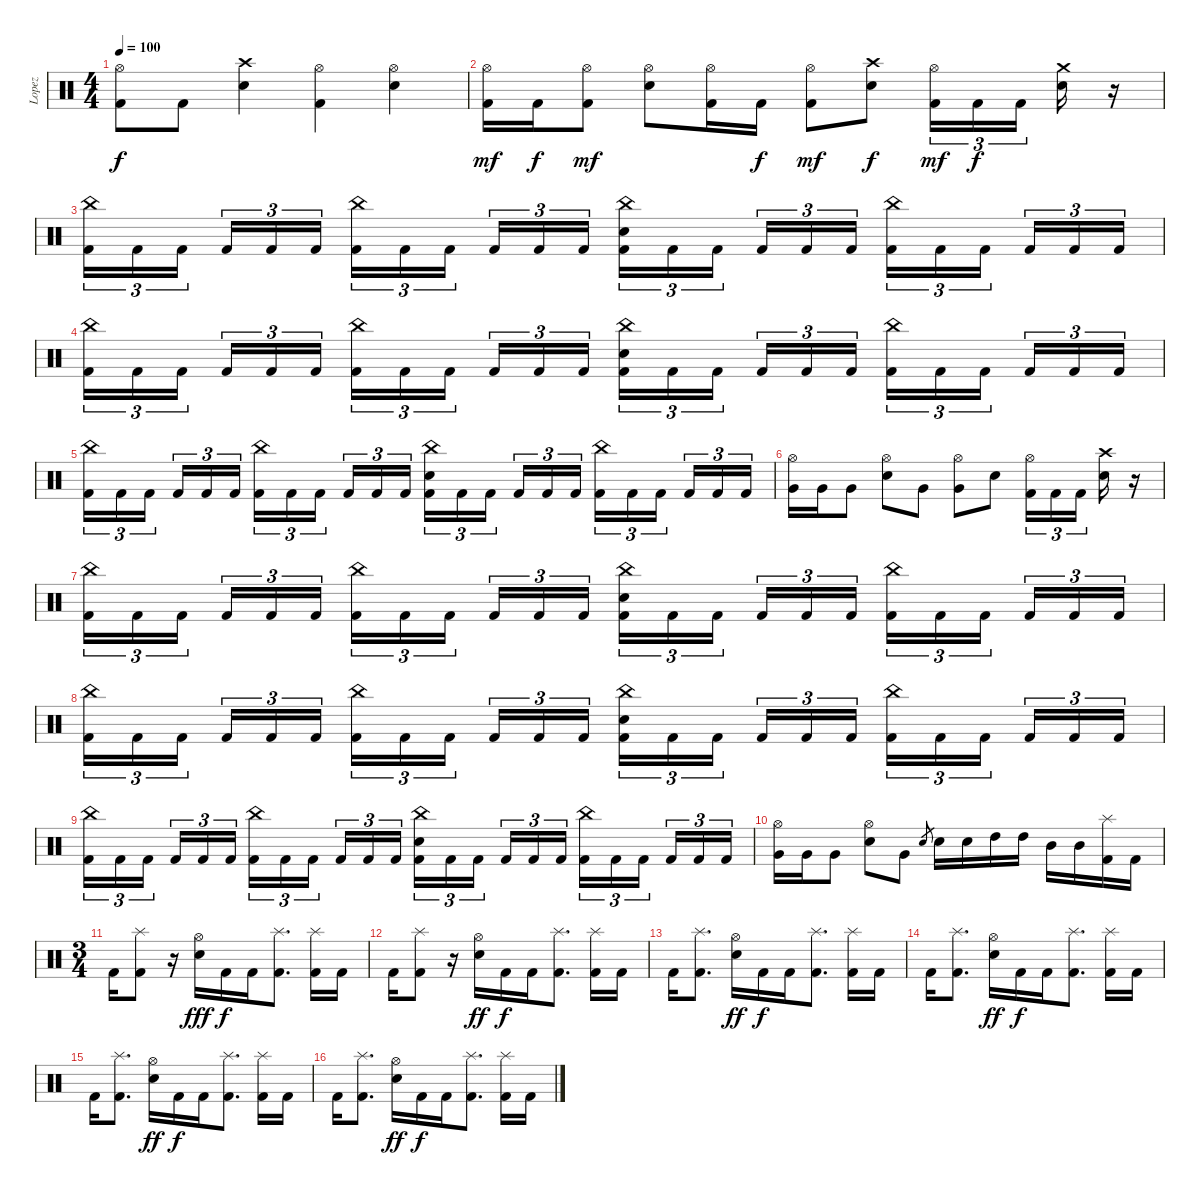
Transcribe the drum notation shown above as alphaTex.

\track ("Lopez" "Lopez") {instrument percussion}
\staff {score}
\articulation defaults
\ts (4 4)
\tempo 100
\clef neutral
\ks c
("Hi-Hat (open)" "Kick (hit) 2").8{dy f} "Kick (hit) 2".8 ("Crash high (hit)" "Snare (hit) 2").4 ("Hi-Hat (open)" "Kick (hit) 2").4 ("Hi-Hat (open)" "Snare (hit) 2").4 |
("Hi-Hat (open)" "Kick (hit) 2").16{dy mf} "Kick (hit) 2".16{dy f} ("Hi-Hat (open)" "Kick (hit) 2").8{dy mf} ("Hi-Hat (open)" "Snare (hit) 2").8 ("Hi-Hat (open)" "Kick (hit) 2").16 "Kick (hit) 2".16{dy f} ("Hi-Hat (open)" "Kick (hit) 2").8{dy mf} ("Crash high (hit)" "Snare (hit) 2").8{dy f} ("Hi-Hat (open)" "Kick (hit) 2").16{tu (3 2) dy mf} "Kick (hit) 2".16{tu (3 2) dy f} "Kick (hit) 2".16{tu (3 2) beam splitsecondary} ("Crash medium (hit)" "Snare (hit) 2").16 r.16 |
("China (hit)" "Kick (hit) 2").16{tu (3 2)} "Kick (hit) 2".16{tu (3 2)} "Kick (hit) 2".16{tu (3 2) beam splitsecondary} "Kick (hit) 2".16{tu (3 2)} "Kick (hit) 2".16{tu (3 2)} "Kick (hit) 2".16{tu (3 2)} ("China (hit)" "Kick (hit) 2").16{tu (3 2)} "Kick (hit) 2".16{tu (3 2)} "Kick (hit) 2".16{tu (3 2) beam splitsecondary} "Kick (hit) 2".16{tu (3 2)} "Kick (hit) 2".16{tu (3 2)} "Kick (hit) 2".16{tu (3 2)} ("China (hit)" "Snare (hit) 2" "Kick (hit) 2").16{tu (3 2)} "Kick (hit) 2".16{tu (3 2)} "Kick (hit) 2".16{tu (3 2) beam splitsecondary} "Kick (hit) 2".16{tu (3 2)} "Kick (hit) 2".16{tu (3 2)} "Kick (hit) 2".16{tu (3 2)} ("China (hit)" "Kick (hit) 2").16{tu (3 2)} "Kick (hit) 2".16{tu (3 2)} "Kick (hit) 2".16{tu (3 2) beam splitsecondary} "Kick (hit) 2".16{tu (3 2)} "Kick (hit) 2".16{tu (3 2)} "Kick (hit) 2".16{tu (3 2)} |
("China (hit)" "Kick (hit) 2").16{tu (3 2)} "Kick (hit) 2".16{tu (3 2)} "Kick (hit) 2".16{tu (3 2) beam splitsecondary} "Kick (hit) 2".16{tu (3 2)} "Kick (hit) 2".16{tu (3 2)} "Kick (hit) 2".16{tu (3 2)} ("China (hit)" "Kick (hit) 2").16{tu (3 2)} "Kick (hit) 2".16{tu (3 2)} "Kick (hit) 2".16{tu (3 2) beam splitsecondary} "Kick (hit) 2".16{tu (3 2)} "Kick (hit) 2".16{tu (3 2)} "Kick (hit) 2".16{tu (3 2)} ("China (hit)" "Snare (hit) 2" "Kick (hit) 2").16{tu (3 2)} "Kick (hit) 2".16{tu (3 2)} "Kick (hit) 2".16{tu (3 2) beam splitsecondary} "Kick (hit) 2".16{tu (3 2)} "Kick (hit) 2".16{tu (3 2)} "Kick (hit) 2".16{tu (3 2)} ("China (hit)" "Kick (hit) 2").16{tu (3 2)} "Kick (hit) 2".16{tu (3 2)} "Kick (hit) 2".16{tu (3 2) beam splitsecondary} "Kick (hit) 2".16{tu (3 2)} "Kick (hit) 2".16{tu (3 2)} "Kick (hit) 2".16{tu (3 2)} |
("China (hit)" "Kick (hit) 2").16{tu (3 2)} "Kick (hit) 2".16{tu (3 2)} "Kick (hit) 2".16{tu (3 2) beam splitsecondary} "Kick (hit) 2".16{tu (3 2)} "Kick (hit) 2".16{tu (3 2)} "Kick (hit) 2".16{tu (3 2)} ("China (hit)" "Kick (hit) 2").16{tu (3 2)} "Kick (hit) 2".16{tu (3 2)} "Kick (hit) 2".16{tu (3 2) beam splitsecondary} "Kick (hit) 2".16{tu (3 2)} "Kick (hit) 2".16{tu (3 2)} "Kick (hit) 2".16{tu (3 2)} ("China (hit)" "Snare (hit) 2" "Kick (hit) 2").16{tu (3 2)} "Kick (hit) 2".16{tu (3 2)} "Kick (hit) 2".16{tu (3 2) beam splitsecondary} "Kick (hit) 2".16{tu (3 2)} "Kick (hit) 2".16{tu (3 2)} "Kick (hit) 2".16{tu (3 2)} ("China (hit)" "Kick (hit) 2").16{tu (3 2)} "Kick (hit) 2".16{tu (3 2)} "Kick (hit) 2".16{tu (3 2) beam splitsecondary} "Kick (hit) 2".16{tu (3 2)} "Kick (hit) 2".16{tu (3 2)} "Kick (hit) 2".16{tu (3 2)} |
("Hi-Hat (open)" "Very Low Tom (hit)").16 "Very Low Tom (hit)".16 "Very Low Tom (hit)".8 ("Hi-Hat (open)" "Snare (hit) 2").8 "Very Low Tom (hit)".8 ("Hi-Hat (open)" "Very Low Tom (hit)").8 "Snare (hit) 2".8 ("Hi-Hat (open)" "Kick (hit) 2").16{tu (3 2)} "Kick (hit) 2".16{tu (3 2)} "Kick (hit) 2".16{tu (3 2) beam splitsecondary} ("Crash high (hit)" "Snare (hit) 2").16 r.16 |
("China (hit)" "Kick (hit) 2").16{tu (3 2)} "Kick (hit) 2".16{tu (3 2)} "Kick (hit) 2".16{tu (3 2) beam splitsecondary} "Kick (hit) 2".16{tu (3 2)} "Kick (hit) 2".16{tu (3 2)} "Kick (hit) 2".16{tu (3 2)} ("China (hit)" "Kick (hit) 2").16{tu (3 2)} "Kick (hit) 2".16{tu (3 2)} "Kick (hit) 2".16{tu (3 2) beam splitsecondary} "Kick (hit) 2".16{tu (3 2)} "Kick (hit) 2".16{tu (3 2)} "Kick (hit) 2".16{tu (3 2)} ("China (hit)" "Snare (hit) 2" "Kick (hit) 2").16{tu (3 2)} "Kick (hit) 2".16{tu (3 2)} "Kick (hit) 2".16{tu (3 2) beam splitsecondary} "Kick (hit) 2".16{tu (3 2)} "Kick (hit) 2".16{tu (3 2)} "Kick (hit) 2".16{tu (3 2)} ("China (hit)" "Kick (hit) 2").16{tu (3 2)} "Kick (hit) 2".16{tu (3 2)} "Kick (hit) 2".16{tu (3 2) beam splitsecondary} "Kick (hit) 2".16{tu (3 2)} "Kick (hit) 2".16{tu (3 2)} "Kick (hit) 2".16{tu (3 2)} |
("China (hit)" "Kick (hit) 2").16{tu (3 2)} "Kick (hit) 2".16{tu (3 2)} "Kick (hit) 2".16{tu (3 2) beam splitsecondary} "Kick (hit) 2".16{tu (3 2)} "Kick (hit) 2".16{tu (3 2)} "Kick (hit) 2".16{tu (3 2)} ("China (hit)" "Kick (hit) 2").16{tu (3 2)} "Kick (hit) 2".16{tu (3 2)} "Kick (hit) 2".16{tu (3 2) beam splitsecondary} "Kick (hit) 2".16{tu (3 2)} "Kick (hit) 2".16{tu (3 2)} "Kick (hit) 2".16{tu (3 2)} ("China (hit)" "Snare (hit) 2" "Kick (hit) 2").16{tu (3 2)} "Kick (hit) 2".16{tu (3 2)} "Kick (hit) 2".16{tu (3 2) beam splitsecondary} "Kick (hit) 2".16{tu (3 2)} "Kick (hit) 2".16{tu (3 2)} "Kick (hit) 2".16{tu (3 2)} ("China (hit)" "Kick (hit) 2").16{tu (3 2)} "Kick (hit) 2".16{tu (3 2)} "Kick (hit) 2".16{tu (3 2) beam splitsecondary} "Kick (hit) 2".16{tu (3 2)} "Kick (hit) 2".16{tu (3 2)} "Kick (hit) 2".16{tu (3 2)} |
("China (hit)" "Kick (hit) 2").16{tu (3 2)} "Kick (hit) 2".16{tu (3 2)} "Kick (hit) 2".16{tu (3 2) beam splitsecondary} "Kick (hit) 2".16{tu (3 2)} "Kick (hit) 2".16{tu (3 2)} "Kick (hit) 2".16{tu (3 2)} ("China (hit)" "Kick (hit) 2").16{tu (3 2)} "Kick (hit) 2".16{tu (3 2)} "Kick (hit) 2".16{tu (3 2) beam splitsecondary} "Kick (hit) 2".16{tu (3 2)} "Kick (hit) 2".16{tu (3 2)} "Kick (hit) 2".16{tu (3 2)} ("China (hit)" "Snare (hit) 2" "Kick (hit) 2").16{tu (3 2)} "Kick (hit) 2".16{tu (3 2)} "Kick (hit) 2".16{tu (3 2) beam splitsecondary} "Kick (hit) 2".16{tu (3 2)} "Kick (hit) 2".16{tu (3 2)} "Kick (hit) 2".16{tu (3 2)} ("China (hit)" "Kick (hit) 2").16{tu (3 2)} "Kick (hit) 2".16{tu (3 2)} "Kick (hit) 2".16{tu (3 2) beam splitsecondary} "Kick (hit) 2".16{tu (3 2)} "Kick (hit) 2".16{tu (3 2)} "Kick (hit) 2".16{tu (3 2)} |
("Hi-Hat (open)" "Very Low Tom (hit)").16 "Very Low Tom (hit)".16 "Very Low Tom (hit)".8 ("Hi-Hat (open)" "Snare (hit) 2").8 "Very Low Tom (hit)".8 "Snare (hit) 2".8{gr} "Snare (hit) 2".16 "Electric Snare (hit)".16 "High Tom (hit)".16 "High Tom (hit)".16 "Mid Tom (hit)".16 "Mid Tom (hit)".16 ("Splash (hit)" "Kick (hit) 2").16 "Kick (hit) 2".16 |
\ts (3 4)
"Kick (hit) 2".16 ("Splash (hit)" "Kick (hit) 2").8 r.16 ("Hi-Hat (open)" "Snare (hit) 2").16{dy fff} "Kick (hit) 2".16{dy f} "Kick (hit) 2".16 ("Splash (hit)" "Kick (hit) 2").8{d} ("Splash (hit)" "Kick (hit) 2").16 "Kick (hit) 2".16 |
"Kick (hit) 2".16 ("Splash (hit)" "Kick (hit) 2").8 r.16 ("Hi-Hat (open)" "Snare (hit) 2").16{dy ff} "Kick (hit) 2".16{dy f} "Kick (hit) 2".16 ("Splash (hit)" "Kick (hit) 2").8{d} ("Splash (hit)" "Kick (hit) 2").16 "Kick (hit) 2".16 |
"Kick (hit) 2".16 ("Splash (hit)" "Kick (hit) 2").8{d} ("Hi-Hat (open)" "Snare (hit) 2").16{dy ff} "Kick (hit) 2".16{dy f} "Kick (hit) 2".16 ("Splash (hit)" "Kick (hit) 2").8{d} ("Splash (hit)" "Kick (hit) 2").16 "Kick (hit) 2".16 |
"Kick (hit) 2".16 ("Splash (hit)" "Kick (hit) 2").8{d} ("Hi-Hat (open)" "Snare (hit) 2").16{dy ff} "Kick (hit) 2".16{dy f} "Kick (hit) 2".16 ("Splash (hit)" "Kick (hit) 2").8{d} ("Splash (hit)" "Kick (hit) 2").16 "Kick (hit) 2".16 |
"Kick (hit) 2".16 ("Splash (hit)" "Kick (hit) 2").8{d} ("Hi-Hat (open)" "Snare (hit) 2").16{dy ff} "Kick (hit) 2".16{dy f} "Kick (hit) 2".16 ("Splash (hit)" "Kick (hit) 2").8{d} ("Splash (hit)" "Kick (hit) 2").16 "Kick (hit) 2".16 |
"Kick (hit) 2".16 ("Splash (hit)" "Kick (hit) 2").8{d} ("Hi-Hat (open)" "Snare (hit) 2").16{dy ff} "Kick (hit) 2".16{dy f} "Kick (hit) 2".16 ("Splash (hit)" "Kick (hit) 2").8{d} ("Splash (hit)" "Kick (hit) 2").16 "Kick (hit) 2".16
